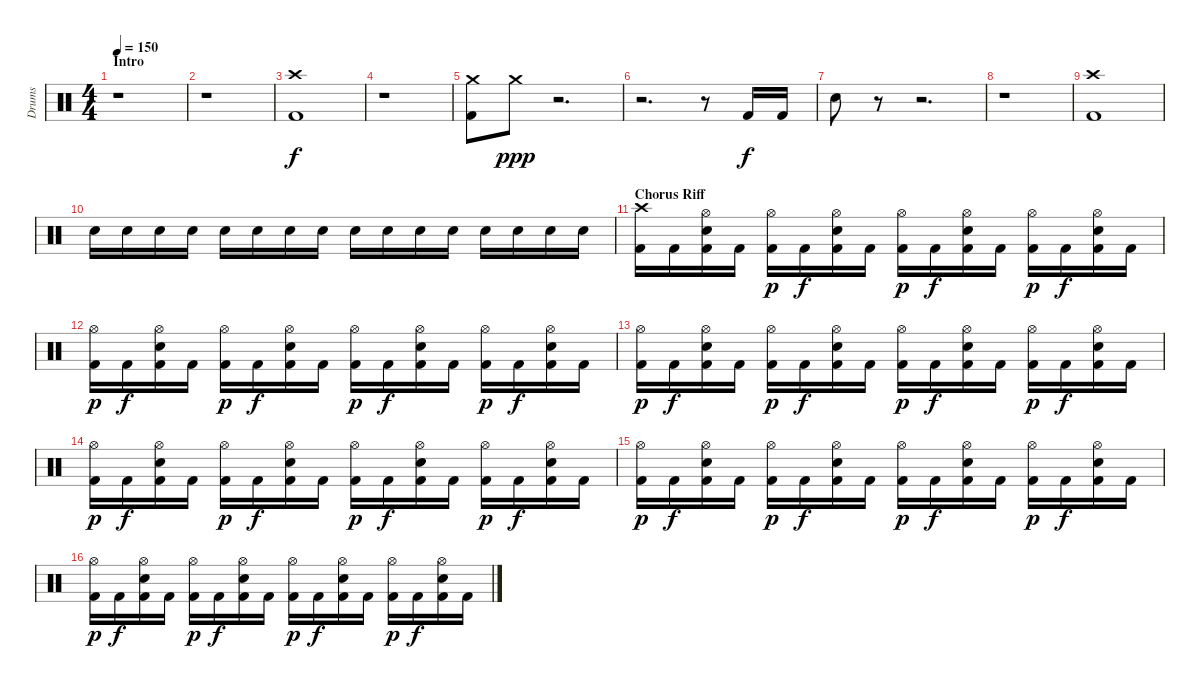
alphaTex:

\track ("Drums" "Drums") {instrument percussion}
\staff {score}
\articulation defaults
\ts (4 4)
\section ("" "Intro")
\tempo 150
\clef neutral
\ks c
r.1{dy f} |
r.1 |
("Crash high (hit)" "Kick (hit) 2").1 |
r.1 |
("Crash medium (hit)" "Kick (hit) 2").8 "Crash medium (hit)".8{dy ppp} r.2{d} |
r.2{d} r.8 "Kick (hit) 2".16{dy f} "Kick (hit) 2".16 |
"Snare (hit) 2".8 r.8 r.2{d} |
r.1 |
("Crash high (hit)" "Kick (hit) 2").1 |
"Snare (hit) 2".16 "Snare (hit) 2".16 "Snare (hit) 2".16 "Snare (hit) 2".16 "Snare (hit) 2".16 "Snare (hit) 2".16 "Snare (hit) 2".16 "Snare (hit) 2".16 "Snare (hit) 2".16 "Snare (hit) 2".16 "Snare (hit) 2".16 "Snare (hit) 2".16 "Snare (hit) 2".16 "Snare (hit) 2".16 "Snare (hit) 2".16 "Snare (hit) 2".16 |
\section ("" "Chorus Riff")
("Crash high (hit)" "Kick (hit) 2").16 "Kick (hit) 2".16 ("Hi-Hat (open)" "Snare (hit) 2" "Kick (hit) 2").16 "Kick (hit) 2".16 ("Hi-Hat (open)" "Kick (hit) 2").16{dy p} "Kick (hit) 2".16{dy f} ("Hi-Hat (open)" "Snare (hit) 2" "Kick (hit) 2").16 "Kick (hit) 2".16 ("Hi-Hat (open)" "Kick (hit) 2").16{dy p} "Kick (hit) 2".16{dy f} ("Hi-Hat (open)" "Snare (hit) 2" "Kick (hit) 2").16 "Kick (hit) 2".16 ("Hi-Hat (open)" "Kick (hit) 2").16{dy p} "Kick (hit) 2".16{dy f} ("Hi-Hat (open)" "Snare (hit) 2" "Kick (hit) 2").16 "Kick (hit) 2".16 |
("Hi-Hat (open)" "Kick (hit) 2").16{dy p} "Kick (hit) 2".16{dy f} ("Hi-Hat (open)" "Snare (hit) 2" "Kick (hit) 2").16 "Kick (hit) 2".16 ("Hi-Hat (open)" "Kick (hit) 2").16{dy p} "Kick (hit) 2".16{dy f} ("Hi-Hat (open)" "Snare (hit) 2" "Kick (hit) 2").16 "Kick (hit) 2".16 ("Hi-Hat (open)" "Kick (hit) 2").16{dy p} "Kick (hit) 2".16{dy f} ("Hi-Hat (open)" "Snare (hit) 2" "Kick (hit) 2").16 "Kick (hit) 2".16 ("Hi-Hat (open)" "Kick (hit) 2").16{dy p} "Kick (hit) 2".16{dy f} ("Hi-Hat (open)" "Snare (hit) 2" "Kick (hit) 2").16 "Kick (hit) 2".16 |
("Hi-Hat (open)" "Kick (hit) 2").16{dy p} "Kick (hit) 2".16{dy f} ("Hi-Hat (open)" "Snare (hit) 2" "Kick (hit) 2").16 "Kick (hit) 2".16 ("Hi-Hat (open)" "Kick (hit) 2").16{dy p} "Kick (hit) 2".16{dy f} ("Hi-Hat (open)" "Snare (hit) 2" "Kick (hit) 2").16 "Kick (hit) 2".16 ("Hi-Hat (open)" "Kick (hit) 2").16{dy p} "Kick (hit) 2".16{dy f} ("Hi-Hat (open)" "Snare (hit) 2" "Kick (hit) 2").16 "Kick (hit) 2".16 ("Hi-Hat (open)" "Kick (hit) 2").16{dy p} "Kick (hit) 2".16{dy f} ("Hi-Hat (open)" "Snare (hit) 2" "Kick (hit) 2").16 "Kick (hit) 2".16 |
("Hi-Hat (open)" "Kick (hit) 2").16{dy p} "Kick (hit) 2".16{dy f} ("Hi-Hat (open)" "Snare (hit) 2" "Kick (hit) 2").16 "Kick (hit) 2".16 ("Hi-Hat (open)" "Kick (hit) 2").16{dy p} "Kick (hit) 2".16{dy f} ("Hi-Hat (open)" "Snare (hit) 2" "Kick (hit) 2").16 "Kick (hit) 2".16 ("Hi-Hat (open)" "Kick (hit) 2").16{dy p} "Kick (hit) 2".16{dy f} ("Hi-Hat (open)" "Snare (hit) 2" "Kick (hit) 2").16 "Kick (hit) 2".16 ("Hi-Hat (open)" "Kick (hit) 2").16{dy p} "Kick (hit) 2".16{dy f} ("Hi-Hat (open)" "Snare (hit) 2" "Kick (hit) 2").16 "Kick (hit) 2".16 |
("Hi-Hat (open)" "Kick (hit) 2").16{dy p} "Kick (hit) 2".16{dy f} ("Hi-Hat (open)" "Snare (hit) 2" "Kick (hit) 2").16 "Kick (hit) 2".16 ("Hi-Hat (open)" "Kick (hit) 2").16{dy p} "Kick (hit) 2".16{dy f} ("Hi-Hat (open)" "Snare (hit) 2" "Kick (hit) 2").16 "Kick (hit) 2".16 ("Hi-Hat (open)" "Kick (hit) 2").16{dy p} "Kick (hit) 2".16{dy f} ("Hi-Hat (open)" "Snare (hit) 2" "Kick (hit) 2").16 "Kick (hit) 2".16 ("Hi-Hat (open)" "Kick (hit) 2").16{dy p} "Kick (hit) 2".16{dy f} ("Hi-Hat (open)" "Snare (hit) 2" "Kick (hit) 2").16 "Kick (hit) 2".16 |
("Hi-Hat (open)" "Kick (hit) 2").16{dy p} "Kick (hit) 2".16{dy f} ("Hi-Hat (open)" "Snare (hit) 2" "Kick (hit) 2").16 "Kick (hit) 2".16 ("Hi-Hat (open)" "Kick (hit) 2").16{dy p} "Kick (hit) 2".16{dy f} ("Hi-Hat (open)" "Snare (hit) 2" "Kick (hit) 2").16 "Kick (hit) 2".16 ("Hi-Hat (open)" "Kick (hit) 2").16{dy p} "Kick (hit) 2".16{dy f} ("Hi-Hat (open)" "Snare (hit) 2" "Kick (hit) 2").16 "Kick (hit) 2".16 ("Hi-Hat (open)" "Kick (hit) 2").16{dy p} "Kick (hit) 2".16{dy f} ("Hi-Hat (open)" "Snare (hit) 2" "Kick (hit) 2").16 "Kick (hit) 2".16
